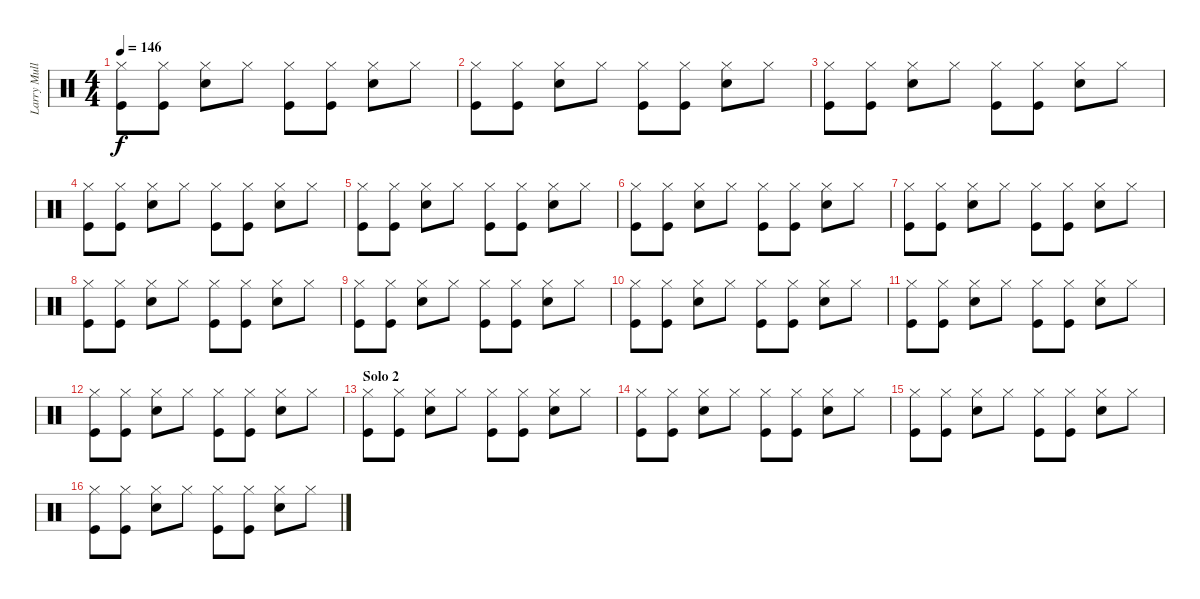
\track ("Larry Mullen" "Larry Mull") {instrument percussion}
\staff {score}
\articulation defaults
\ts (4 4)
\tempo 146
\clef neutral
\ks c
("Hi-Hat (closed)" "Kick (hit)").8{dy f} ("Hi-Hat (closed)" "Kick (hit)").8 ("Hi-Hat (closed)" "Snare (hit) 2").8 "Hi-Hat (closed)".8 ("Hi-Hat (closed)" "Kick (hit)").8 ("Hi-Hat (closed)" "Kick (hit)").8 ("Hi-Hat (closed)" "Snare (hit) 2").8 "Hi-Hat (closed)".8 |
("Hi-Hat (closed)" "Kick (hit)").8 ("Hi-Hat (closed)" "Kick (hit)").8 ("Hi-Hat (closed)" "Snare (hit) 2").8 "Hi-Hat (closed)".8 ("Hi-Hat (closed)" "Kick (hit)").8 ("Hi-Hat (closed)" "Kick (hit)").8 ("Hi-Hat (closed)" "Snare (hit) 2").8 "Hi-Hat (closed)".8 |
("Hi-Hat (closed)" "Kick (hit)").8 ("Hi-Hat (closed)" "Kick (hit)").8 ("Hi-Hat (closed)" "Snare (hit) 2").8 "Hi-Hat (closed)".8 ("Hi-Hat (closed)" "Kick (hit)").8 ("Hi-Hat (closed)" "Kick (hit)").8 ("Hi-Hat (closed)" "Snare (hit) 2").8 "Hi-Hat (closed)".8 |
("Hi-Hat (closed)" "Kick (hit)").8 ("Hi-Hat (closed)" "Kick (hit)").8 ("Hi-Hat (closed)" "Snare (hit) 2").8 "Hi-Hat (closed)".8 ("Hi-Hat (closed)" "Kick (hit)").8 ("Hi-Hat (closed)" "Kick (hit)").8 ("Hi-Hat (closed)" "Snare (hit) 2").8 "Hi-Hat (closed)".8 |
("Hi-Hat (closed)" "Kick (hit)").8 ("Hi-Hat (closed)" "Kick (hit)").8 ("Hi-Hat (closed)" "Snare (hit) 2").8 "Hi-Hat (closed)".8 ("Hi-Hat (closed)" "Kick (hit)").8 ("Hi-Hat (closed)" "Kick (hit)").8 ("Hi-Hat (closed)" "Snare (hit) 2").8 "Hi-Hat (closed)".8 |
("Hi-Hat (closed)" "Kick (hit)").8 ("Hi-Hat (closed)" "Kick (hit)").8 ("Hi-Hat (closed)" "Snare (hit) 2").8 "Hi-Hat (closed)".8 ("Hi-Hat (closed)" "Kick (hit)").8 ("Hi-Hat (closed)" "Kick (hit)").8 ("Hi-Hat (closed)" "Snare (hit) 2").8 "Hi-Hat (closed)".8 |
("Hi-Hat (closed)" "Kick (hit)").8 ("Hi-Hat (closed)" "Kick (hit)").8 ("Hi-Hat (closed)" "Snare (hit) 2").8 "Hi-Hat (closed)".8 ("Hi-Hat (closed)" "Kick (hit)").8 ("Hi-Hat (closed)" "Kick (hit)").8 ("Hi-Hat (closed)" "Snare (hit) 2").8 "Hi-Hat (closed)".8 |
("Hi-Hat (closed)" "Kick (hit)").8 ("Hi-Hat (closed)" "Kick (hit)").8 ("Hi-Hat (closed)" "Snare (hit) 2").8 "Hi-Hat (closed)".8 ("Hi-Hat (closed)" "Kick (hit)").8 ("Hi-Hat (closed)" "Kick (hit)").8 ("Hi-Hat (closed)" "Snare (hit) 2").8 "Hi-Hat (closed)".8 |
("Hi-Hat (closed)" "Kick (hit)").8 ("Hi-Hat (closed)" "Kick (hit)").8 ("Hi-Hat (closed)" "Snare (hit) 2").8 "Hi-Hat (closed)".8 ("Hi-Hat (closed)" "Kick (hit)").8 ("Hi-Hat (closed)" "Kick (hit)").8 ("Hi-Hat (closed)" "Snare (hit) 2").8 "Hi-Hat (closed)".8 |
("Hi-Hat (closed)" "Kick (hit)").8 ("Hi-Hat (closed)" "Kick (hit)").8 ("Hi-Hat (closed)" "Snare (hit) 2").8 "Hi-Hat (closed)".8 ("Hi-Hat (closed)" "Kick (hit)").8 ("Hi-Hat (closed)" "Kick (hit)").8 ("Hi-Hat (closed)" "Snare (hit) 2").8 "Hi-Hat (closed)".8 |
("Hi-Hat (closed)" "Kick (hit)").8 ("Hi-Hat (closed)" "Kick (hit)").8 ("Hi-Hat (closed)" "Snare (hit) 2").8 "Hi-Hat (closed)".8 ("Hi-Hat (closed)" "Kick (hit)").8 ("Hi-Hat (closed)" "Kick (hit)").8 ("Hi-Hat (closed)" "Snare (hit) 2").8 "Hi-Hat (closed)".8 |
("Hi-Hat (closed)" "Kick (hit)").8 ("Hi-Hat (closed)" "Kick (hit)").8 ("Hi-Hat (closed)" "Snare (hit) 2").8 "Hi-Hat (closed)".8 ("Hi-Hat (closed)" "Kick (hit)").8 ("Hi-Hat (closed)" "Kick (hit)").8 ("Hi-Hat (closed)" "Snare (hit) 2").8 "Hi-Hat (closed)".8 |
\section ("" "Solo 2")
("Hi-Hat (closed)" "Kick (hit)").8 ("Hi-Hat (closed)" "Kick (hit)").8 ("Hi-Hat (closed)" "Snare (hit) 2").8 "Hi-Hat (closed)".8 ("Hi-Hat (closed)" "Kick (hit)").8 ("Hi-Hat (closed)" "Kick (hit)").8 ("Hi-Hat (closed)" "Snare (hit) 2").8 "Hi-Hat (closed)".8 |
("Hi-Hat (closed)" "Kick (hit)").8 ("Hi-Hat (closed)" "Kick (hit)").8 ("Hi-Hat (closed)" "Snare (hit) 2").8 "Hi-Hat (closed)".8 ("Hi-Hat (closed)" "Kick (hit)").8 ("Hi-Hat (closed)" "Kick (hit)").8 ("Hi-Hat (closed)" "Snare (hit) 2").8 "Hi-Hat (closed)".8 |
("Hi-Hat (closed)" "Kick (hit)").8 ("Hi-Hat (closed)" "Kick (hit)").8 ("Hi-Hat (closed)" "Snare (hit) 2").8 "Hi-Hat (closed)".8 ("Hi-Hat (closed)" "Kick (hit)").8 ("Hi-Hat (closed)" "Kick (hit)").8 ("Hi-Hat (closed)" "Snare (hit) 2").8 "Hi-Hat (closed)".8 |
("Hi-Hat (closed)" "Kick (hit)").8 ("Hi-Hat (closed)" "Kick (hit)").8 ("Hi-Hat (closed)" "Snare (hit) 2").8 "Hi-Hat (closed)".8 ("Hi-Hat (closed)" "Kick (hit)").8 ("Hi-Hat (closed)" "Kick (hit)").8 ("Hi-Hat (closed)" "Snare (hit) 2").8 "Hi-Hat (closed)".8
